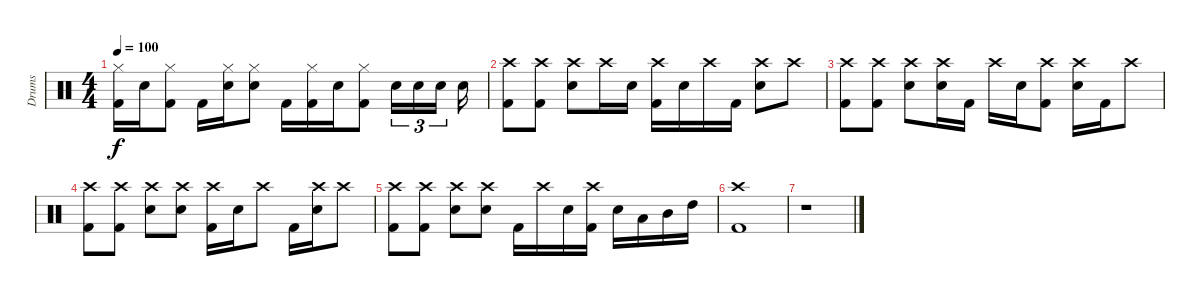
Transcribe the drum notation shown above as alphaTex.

\track ("Drums" "Drums") {instrument percussion}
\staff {score}
\articulation defaults
\ts (4 4)
\tempo 100
\clef neutral
\ks c
("Hi-Hat (closed)" "Kick (hit) 2").16{dy f} "Snare (hit) 2".16 ("Hi-Hat (closed)" "Kick (hit) 2").8 "Kick (hit) 2".16 ("Hi-Hat (closed)" "Snare (hit) 2").16 ("Hi-Hat (closed)" "Snare (hit) 2").8 "Kick (hit) 2".16 ("Hi-Hat (closed)" "Kick (hit) 2").16 "Snare (hit) 2".16 ("Hi-Hat (closed)" "Kick (hit) 2").8 "Snare (hit) 2".16{tu (3 2)} "Snare (hit) 2".16{tu (3 2)} "Snare (hit) 2".16{tu (3 2)} "Snare (hit) 2".16 |
("Crash high (hit)" "Kick (hit) 2").8 ("Crash high (hit)" "Kick (hit) 2").8 ("Crash high (hit)" "Snare (hit) 2").8 "Crash high (hit)".16 "Snare (hit) 2".16 ("Crash high (hit)" "Kick (hit) 2").16 "Snare (hit) 2".16 "Crash high (hit)".16 "Kick (hit) 2".16 ("Crash high (hit)" "Snare (hit) 2").8 "Crash high (hit)".8 |
("Crash high (hit)" "Kick (hit) 2").8 ("Crash high (hit)" "Kick (hit) 2").8 ("Crash high (hit)" "Snare (hit) 2").8 ("Crash high (hit)" "Snare (hit) 2").16 "Kick (hit) 2".16 "Crash high (hit)".16 "Snare (hit) 2".16 ("Crash high (hit)" "Kick (hit) 2").8 ("Crash high (hit)" "Snare (hit) 2").16 "Kick (hit) 2".16 "Crash high (hit)".8 |
("Crash high (hit)" "Kick (hit) 2").8 ("Crash high (hit)" "Kick (hit) 2").8 ("Crash high (hit)" "Snare (hit) 2").8 ("Crash high (hit)" "Snare (hit) 2").8 ("Crash high (hit)" "Kick (hit) 2").16 "Snare (hit) 2".16 "Crash high (hit)".8 "Kick (hit) 2".16 ("Crash high (hit)" "Snare (hit) 2").16 "Crash high (hit)".8 |
("Crash high (hit)" "Kick (hit) 2").8 ("Crash high (hit)" "Kick (hit) 2").8 ("Crash high (hit)" "Snare (hit) 2").8 ("Crash high (hit)" "Snare (hit) 2").8 "Kick (hit) 2".16 "Crash high (hit)".16 "Snare (hit) 2".16 ("Crash high (hit)" "Kick (hit) 2").16 "Electric Snare (hit)".16 "Low Tom (hit)".16 "Mid Tom (hit)".16 "High Tom (hit)".16 |
("Crash high (hit)" "Kick (hit) 2").1 |
r.1
